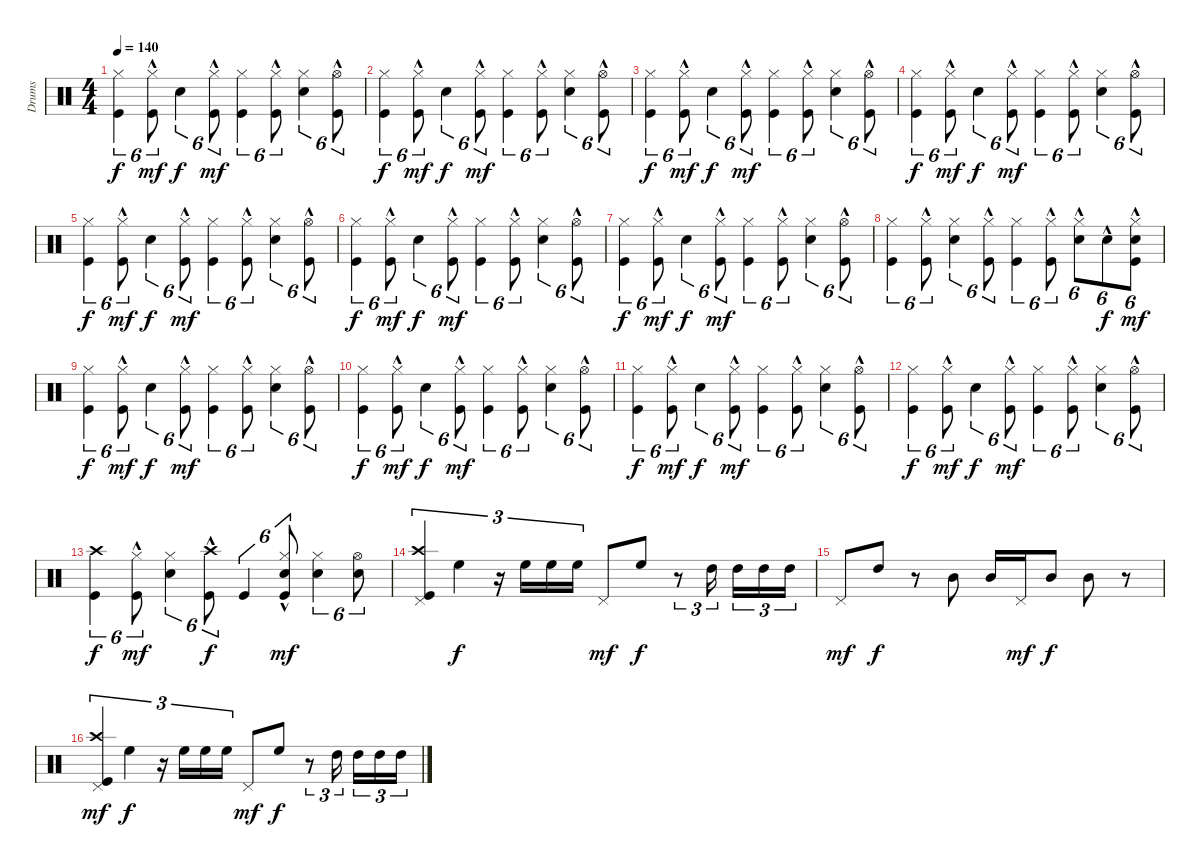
\track ("Drums" "Drums") {instrument percussion}
\staff {score}
\articulation defaults
\ts (4 4)
\tempo 140
\clef neutral
\ks c
("Kick (hit)" "Hi-Hat (closed)").4{tu (6 4) dy f} ("Kick (hit)"{hac} "Hi-Hat (closed)"{hac}).8{tu (6 4) dy mf} "Electric Snare (hit)".4{tu (6 4) dy f} ("Kick (hit)"{hac} "Hi-Hat (closed)"{hac}).8{tu (6 4) dy mf} ("Kick (hit)" "Hi-Hat (closed)").4{tu (6 4)} ("Kick (hit)"{hac} "Hi-Hat (closed)"{hac}).8{tu (6 4)} ("Electric Snare (hit)" "Hi-Hat (closed)").4{tu (6 4)} ("Kick (hit)"{hac} "Hi-Hat (open)"{hac}).8{tu (6 4)} |
("Kick (hit)" "Hi-Hat (closed)").4{tu (6 4) dy f} ("Kick (hit)"{hac} "Hi-Hat (closed)"{hac}).8{tu (6 4) dy mf} "Electric Snare (hit)".4{tu (6 4) dy f} ("Kick (hit)"{hac} "Hi-Hat (closed)"{hac}).8{tu (6 4) dy mf} ("Kick (hit)" "Hi-Hat (closed)").4{tu (6 4)} ("Kick (hit)"{hac} "Hi-Hat (closed)"{hac}).8{tu (6 4)} ("Electric Snare (hit)" "Hi-Hat (closed)").4{tu (6 4)} ("Kick (hit)"{hac} "Hi-Hat (open)"{hac}).8{tu (6 4)} |
("Kick (hit)" "Hi-Hat (closed)").4{tu (6 4) dy f} ("Kick (hit)"{hac} "Hi-Hat (closed)"{hac}).8{tu (6 4) dy mf} "Electric Snare (hit)".4{tu (6 4) dy f} ("Kick (hit)"{hac} "Hi-Hat (closed)"{hac}).8{tu (6 4) dy mf} ("Kick (hit)" "Hi-Hat (closed)").4{tu (6 4)} ("Kick (hit)"{hac} "Hi-Hat (closed)"{hac}).8{tu (6 4)} ("Electric Snare (hit)" "Hi-Hat (closed)").4{tu (6 4)} ("Kick (hit)"{hac} "Hi-Hat (open)"{hac}).8{tu (6 4)} |
("Kick (hit)" "Hi-Hat (closed)").4{tu (6 4) dy f} ("Kick (hit)"{hac} "Hi-Hat (closed)"{hac}).8{tu (6 4) dy mf} "Electric Snare (hit)".4{tu (6 4) dy f} ("Kick (hit)"{hac} "Hi-Hat (closed)"{hac}).8{tu (6 4) dy mf} ("Kick (hit)" "Hi-Hat (closed)").4{tu (6 4)} ("Kick (hit)"{hac} "Hi-Hat (closed)"{hac}).8{tu (6 4)} ("Electric Snare (hit)" "Hi-Hat (closed)").4{tu (6 4)} ("Kick (hit)"{hac} "Hi-Hat (open)"{hac}).8{tu (6 4)} |
("Kick (hit)" "Hi-Hat (closed)").4{tu (6 4) dy f} ("Kick (hit)"{hac} "Hi-Hat (closed)"{hac}).8{tu (6 4) dy mf} "Electric Snare (hit)".4{tu (6 4) dy f} ("Kick (hit)"{hac} "Hi-Hat (closed)"{hac}).8{tu (6 4) dy mf} ("Kick (hit)" "Hi-Hat (closed)").4{tu (6 4)} ("Kick (hit)"{hac} "Hi-Hat (closed)"{hac}).8{tu (6 4)} ("Electric Snare (hit)" "Hi-Hat (closed)").4{tu (6 4)} ("Kick (hit)"{hac} "Hi-Hat (open)"{hac}).8{tu (6 4)} |
("Kick (hit)" "Hi-Hat (closed)").4{tu (6 4) dy f} ("Kick (hit)"{hac} "Hi-Hat (closed)"{hac}).8{tu (6 4) dy mf} "Electric Snare (hit)".4{tu (6 4) dy f} ("Kick (hit)"{hac} "Hi-Hat (closed)"{hac}).8{tu (6 4) dy mf} ("Kick (hit)" "Hi-Hat (closed)").4{tu (6 4)} ("Kick (hit)"{hac} "Hi-Hat (closed)"{hac}).8{tu (6 4)} ("Electric Snare (hit)" "Hi-Hat (closed)").4{tu (6 4)} ("Kick (hit)"{hac} "Hi-Hat (open)"{hac}).8{tu (6 4)} |
("Kick (hit)" "Hi-Hat (closed)").4{tu (6 4) dy f} ("Kick (hit)"{hac} "Hi-Hat (closed)"{hac}).8{tu (6 4) dy mf} "Electric Snare (hit)".4{tu (6 4) dy f} ("Kick (hit)"{hac} "Hi-Hat (closed)"{hac}).8{tu (6 4) dy mf} ("Kick (hit)" "Hi-Hat (closed)").4{tu (6 4)} ("Kick (hit)"{hac} "Hi-Hat (closed)"{hac}).8{tu (6 4)} ("Electric Snare (hit)" "Hi-Hat (closed)").4{tu (6 4)} ("Kick (hit)"{hac} "Hi-Hat (open)"{hac}).8{tu (6 4)} |
("Kick (hit)" "Hi-Hat (closed)").4{tu (6 4)} ("Kick (hit)"{hac} "Hi-Hat (closed)"{hac}).8{tu (6 4)} ("Electric Snare (hit)" "Hi-Hat (closed)").4{tu (6 4)} ("Kick (hit)"{hac} "Hi-Hat (closed)"{hac}).8{tu (6 4)} ("Kick (hit)" "Hi-Hat (closed)").4{tu (6 4)} ("Kick (hit)"{hac} "Hi-Hat (closed)"{hac}).8{tu (6 4)} ("Electric Snare (hit)"{hac} "Hi-Hat (closed)"{hac}).8{tu (6 4)} "Electric Snare (hit)"{hac}.8{tu (6 4) dy f} ("Kick (hit)"{hac} "Snare (hit) 2"{hac} "Hi-Hat (closed)"{hac}).8{tu (6 4) dy mf} |
("Kick (hit)" "Hi-Hat (closed)").4{tu (6 4) dy f} ("Kick (hit)"{hac} "Hi-Hat (closed)"{hac}).8{tu (6 4) dy mf} "Electric Snare (hit)".4{tu (6 4) dy f} ("Kick (hit)"{hac} "Hi-Hat (closed)"{hac}).8{tu (6 4) dy mf} ("Kick (hit)" "Hi-Hat (closed)").4{tu (6 4)} ("Kick (hit)"{hac} "Hi-Hat (closed)"{hac}).8{tu (6 4)} ("Electric Snare (hit)" "Hi-Hat (closed)").4{tu (6 4)} ("Kick (hit)"{hac} "Hi-Hat (open)"{hac}).8{tu (6 4)} |
("Kick (hit)" "Hi-Hat (closed)").4{tu (6 4) dy f} ("Kick (hit)"{hac} "Hi-Hat (closed)"{hac}).8{tu (6 4) dy mf} "Electric Snare (hit)".4{tu (6 4) dy f} ("Kick (hit)"{hac} "Hi-Hat (closed)"{hac}).8{tu (6 4) dy mf} ("Kick (hit)" "Hi-Hat (closed)").4{tu (6 4)} ("Kick (hit)"{hac} "Hi-Hat (closed)"{hac}).8{tu (6 4)} ("Electric Snare (hit)" "Hi-Hat (closed)").4{tu (6 4)} ("Kick (hit)"{hac} "Hi-Hat (open)"{hac}).8{tu (6 4)} |
("Kick (hit)" "Hi-Hat (closed)").4{tu (6 4) dy f} ("Kick (hit)"{hac} "Hi-Hat (closed)"{hac}).8{tu (6 4) dy mf} "Electric Snare (hit)".4{tu (6 4) dy f} ("Kick (hit)"{hac} "Hi-Hat (closed)"{hac}).8{tu (6 4) dy mf} ("Kick (hit)" "Hi-Hat (closed)").4{tu (6 4)} ("Kick (hit)"{hac} "Hi-Hat (closed)"{hac}).8{tu (6 4)} ("Electric Snare (hit)" "Hi-Hat (closed)").4{tu (6 4)} ("Kick (hit)"{hac} "Hi-Hat (open)"{hac}).8{tu (6 4)} |
("Kick (hit)" "Hi-Hat (closed)").4{tu (6 4) dy f} ("Kick (hit)"{hac} "Hi-Hat (closed)"{hac}).8{tu (6 4) dy mf} "Electric Snare (hit)".4{tu (6 4) dy f} ("Kick (hit)"{hac} "Hi-Hat (closed)"{hac}).8{tu (6 4) dy mf} ("Kick (hit)" "Hi-Hat (closed)").4{tu (6 4)} ("Kick (hit)"{hac} "Hi-Hat (closed)"{hac}).8{tu (6 4)} ("Electric Snare (hit)" "Hi-Hat (closed)").4{tu (6 4)} ("Kick (hit)"{hac} "Hi-Hat (open)"{hac}).8{tu (6 4)} |
("Kick (hit)" "Crash high (hit)").4{tu (6 4) dy f} ("Kick (hit)"{hac} "Hi-Hat (closed)"{hac}).8{tu (6 4) dy mf} ("Electric Snare (hit)" "Hi-Hat (closed)").4{tu (6 4)} ("Kick (hit)"{hac} "Crash high (hit)"{hac}).8{tu (6 4) dy f} "Kick (hit)".4{tu (6 4)} ("Kick (hit)"{hac} "Snare (hit) 2"{hac} "Hi-Hat (closed)"{hac}).8{tu (6 4) dy mf} ("Electric Snare (hit)" "Hi-Hat (closed)").4{tu (6 4)} ("Electric Snare (hit)" "Hi-Hat (open)").8{tu (6 4)} |
("Kick (hit)" "Pedal Hi-Hat (hit)" "Crash high (hit)").4{tu (3 2)} "High Floor Tom (hit)".4{tu (3 2) dy f} r.16{tu (3 2)} "High Floor Tom (hit)".16{tu (3 2)} "High Floor Tom (hit)".16{tu (3 2)} "High Floor Tom (hit)".16{tu (3 2)} "Pedal Hi-Hat (hit)".8{dy mf} "High Floor Tom (hit)".8{dy f} r.8{tu (3 2)} "High Tom (hit)".16{tu (3 2)} "High Tom (hit)".16{tu (3 2)} "High Tom (hit)".16{tu (3 2)} "High Tom (hit)".16{tu (3 2)} |
"Pedal Hi-Hat (hit)".8{dy mf} "High Tom (hit)".8{dy f} r.8 "Mid Tom (hit)".8 "Mid Tom (hit)".16 "Pedal Hi-Hat (hit)".16{dy mf} "Mid Tom (hit)".8{dy f} "Mid Tom (hit)".8 r.8 |
("Kick (hit)" "Pedal Hi-Hat (hit)" "Crash high (hit)").4{tu (3 2) dy mf} "High Floor Tom (hit)".4{tu (3 2) dy f} r.16{tu (3 2)} "High Floor Tom (hit)".16{tu (3 2)} "High Floor Tom (hit)".16{tu (3 2)} "High Floor Tom (hit)".16{tu (3 2)} "Pedal Hi-Hat (hit)".8{dy mf} "High Floor Tom (hit)".8{dy f} r.8{tu (3 2)} "High Tom (hit)".16{tu (3 2)} "High Tom (hit)".16{tu (3 2)} "High Tom (hit)".16{tu (3 2)} "High Tom (hit)".16{tu (3 2)}
